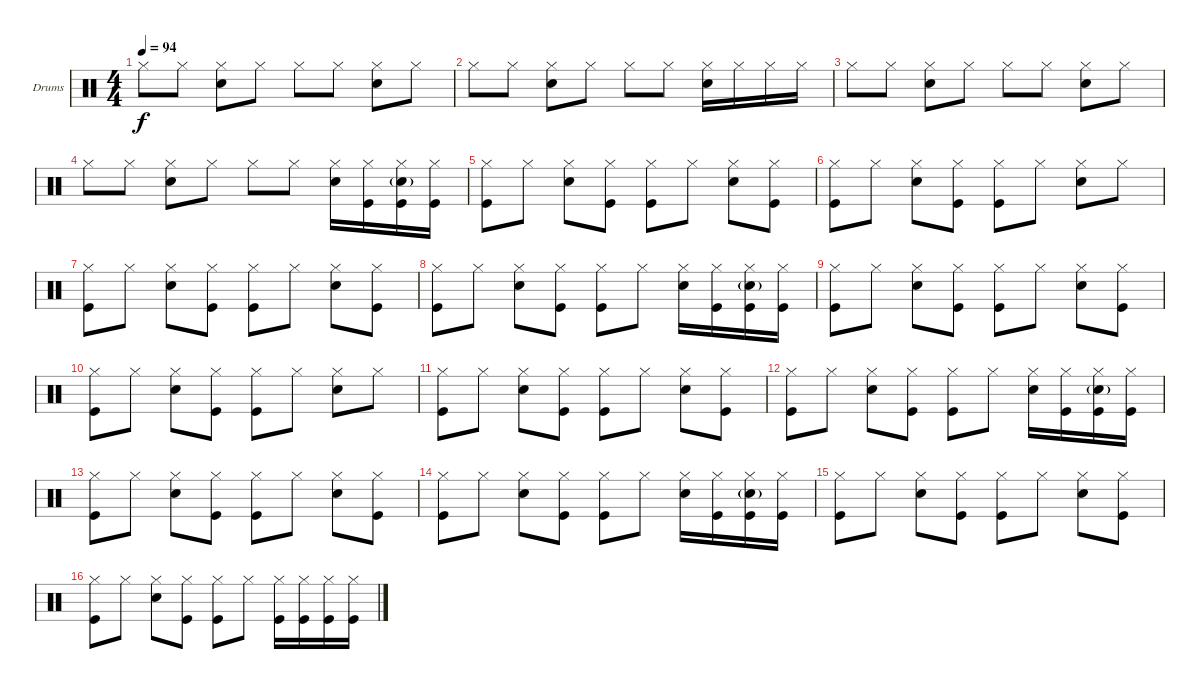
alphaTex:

\defaultSystemsLayout 4
\bracketExtendMode groupsimilarinstruments
\firstSystemTrackNameOrientation horizontal
\otherSystemsTrackNameOrientation horizontal
\track ("Drumkit" "Drums") {instrument percussion}
\staff {score}
\articulation defaults
\ts (4 4)
\tempo 94
\clef neutral
\ks c "Hi-Hat (closed)".8{dy f} "Hi-Hat (closed)".8
("Hi-Hat (closed)" "Snare (hit) 2").8 "Hi-Hat (closed)".8 "Hi-Hat (closed)".8 "Hi-Hat (closed)".8 ("Hi-Hat (closed)" "Snare (hit) 2").8 "Hi-Hat (closed)".8 |
"Hi-Hat (closed)".8 "Hi-Hat (closed)".8 ("Hi-Hat (closed)" "Snare (hit) 2").8 "Hi-Hat (closed)".8 "Hi-Hat (closed)".8 "Hi-Hat (closed)".8 ("Hi-Hat (closed)" "Snare (hit) 2").16 "Hi-Hat (closed)".16 "Hi-Hat (closed)".16 "Hi-Hat (closed)".16 |
"Hi-Hat (closed)".8 "Hi-Hat (closed)".8 ("Hi-Hat (closed)" "Snare (hit) 2").8 "Hi-Hat (closed)".8 "Hi-Hat (closed)".8 "Hi-Hat (closed)".8 ("Hi-Hat (closed)" "Snare (hit) 2").8 "Hi-Hat (closed)".8 |
"Hi-Hat (closed)".8 "Hi-Hat (closed)".8 ("Hi-Hat (closed)" "Snare (hit) 2").8 "Hi-Hat (closed)".8 "Hi-Hat (closed)".8 "Hi-Hat (closed)".8 ("Hi-Hat (closed)" "Snare (hit) 2").16 ("Hi-Hat (closed)" "Kick (hit)").16 ("Hi-Hat (closed)" "Kick (hit)" "Snare (hit) 2"{g}).16 ("Hi-Hat (closed)" "Kick (hit)").16 |
("Kick (hit)" "Hi-Hat (closed)").8 "Hi-Hat (closed)".8 ("Hi-Hat (closed)" "Snare (hit) 2").8 ("Kick (hit)" "Hi-Hat (closed)").8 ("Kick (hit)" "Hi-Hat (closed)").8 "Hi-Hat (closed)".8 ("Snare (hit) 2" "Hi-Hat (closed)").8 ("Hi-Hat (closed)" "Kick (hit)").8 |
("Kick (hit)" "Hi-Hat (closed)").8 "Hi-Hat (closed)".8 ("Hi-Hat (closed)" "Snare (hit) 2").8 ("Hi-Hat (closed)" "Kick (hit)").8 ("Kick (hit)" "Hi-Hat (closed)").8 "Hi-Hat (closed)".8 ("Hi-Hat (closed)" "Snare (hit) 2").8 "Hi-Hat (closed)".8 |
("Kick (hit)" "Hi-Hat (closed)").8 "Hi-Hat (closed)".8 ("Hi-Hat (closed)" "Snare (hit) 2").8 ("Kick (hit)" "Hi-Hat (closed)").8 ("Kick (hit)" "Hi-Hat (closed)").8 "Hi-Hat (closed)".8 ("Snare (hit) 2" "Hi-Hat (closed)").8 ("Hi-Hat (closed)" "Kick (hit)").8 |
("Kick (hit)" "Hi-Hat (closed)").8 "Hi-Hat (closed)".8 ("Hi-Hat (closed)" "Snare (hit) 2").8 ("Hi-Hat (closed)" "Kick (hit)").8 ("Kick (hit)" "Hi-Hat (closed)").8 "Hi-Hat (closed)".8 ("Hi-Hat (closed)" "Snare (hit) 2").16 ("Hi-Hat (closed)" "Kick (hit)").16 ("Kick (hit)" "Hi-Hat (closed)" "Snare (hit) 2"{g}).16 ("Kick (hit)" "Hi-Hat (closed)").16 |
("Kick (hit)" "Hi-Hat (closed)").8 "Hi-Hat (closed)".8 ("Hi-Hat (closed)" "Snare (hit) 2").8 ("Kick (hit)" "Hi-Hat (closed)").8 ("Kick (hit)" "Hi-Hat (closed)").8 "Hi-Hat (closed)".8 ("Snare (hit) 2" "Hi-Hat (closed)").8 ("Hi-Hat (closed)" "Kick (hit)").8 |
("Kick (hit)" "Hi-Hat (closed)").8 "Hi-Hat (closed)".8 ("Hi-Hat (closed)" "Snare (hit) 2").8 ("Hi-Hat (closed)" "Kick (hit)").8 ("Kick (hit)" "Hi-Hat (closed)").8 "Hi-Hat (closed)".8 ("Hi-Hat (closed)" "Snare (hit) 2").8 "Hi-Hat (closed)".8 |
("Kick (hit)" "Hi-Hat (closed)").8 "Hi-Hat (closed)".8 ("Hi-Hat (closed)" "Snare (hit) 2").8 ("Kick (hit)" "Hi-Hat (closed)").8 ("Kick (hit)" "Hi-Hat (closed)").8 "Hi-Hat (closed)".8 ("Snare (hit) 2" "Hi-Hat (closed)").8 ("Hi-Hat (closed)" "Kick (hit)").8 |
("Kick (hit)" "Hi-Hat (closed)").8 "Hi-Hat (closed)".8 ("Hi-Hat (closed)" "Snare (hit) 2").8 ("Hi-Hat (closed)" "Kick (hit)").8 ("Kick (hit)" "Hi-Hat (closed)").8 "Hi-Hat (closed)".8 ("Hi-Hat (closed)" "Snare (hit) 2").16 ("Hi-Hat (closed)" "Kick (hit)").16 ("Kick (hit)" "Hi-Hat (closed)" "Snare (hit) 2"{g}).16 ("Kick (hit)" "Hi-Hat (closed)").16 |
("Kick (hit)" "Hi-Hat (closed)").8 "Hi-Hat (closed)".8 ("Hi-Hat (closed)" "Snare (hit) 2").8 ("Kick (hit)" "Hi-Hat (closed)").8 ("Kick (hit)" "Hi-Hat (closed)").8 "Hi-Hat (closed)".8 ("Snare (hit) 2" "Hi-Hat (closed)").8 ("Hi-Hat (closed)" "Kick (hit)").8 |
("Kick (hit)" "Hi-Hat (closed)").8 "Hi-Hat (closed)".8 ("Hi-Hat (closed)" "Snare (hit) 2").8 ("Hi-Hat (closed)" "Kick (hit)").8 ("Kick (hit)" "Hi-Hat (closed)").8 "Hi-Hat (closed)".8 ("Hi-Hat (closed)" "Snare (hit) 2").16 ("Hi-Hat (closed)" "Kick (hit)").16 ("Kick (hit)" "Hi-Hat (closed)" "Snare (hit) 2"{g}).16 ("Kick (hit)" "Hi-Hat (closed)").16 |
("Kick (hit)" "Hi-Hat (closed)").8 "Hi-Hat (closed)".8 ("Hi-Hat (closed)" "Snare (hit) 2").8 ("Kick (hit)" "Hi-Hat (closed)").8 ("Kick (hit)" "Hi-Hat (closed)").8 "Hi-Hat (closed)".8 ("Snare (hit) 2" "Hi-Hat (closed)").8 ("Hi-Hat (closed)" "Kick (hit)").8 |
("Kick (hit)" "Hi-Hat (closed)").8 "Hi-Hat (closed)".8 ("Hi-Hat (closed)" "Snare (hit) 2").8 ("Hi-Hat (closed)" "Kick (hit)").8 ("Kick (hit)" "Hi-Hat (closed)").8 "Hi-Hat (closed)".8 ("Hi-Hat (closed)" "Kick (hit)").16 ("Hi-Hat (closed)" "Kick (hit)").16 ("Kick (hit)" "Hi-Hat (closed)").16 ("Kick (hit)" "Hi-Hat (closed)").16
